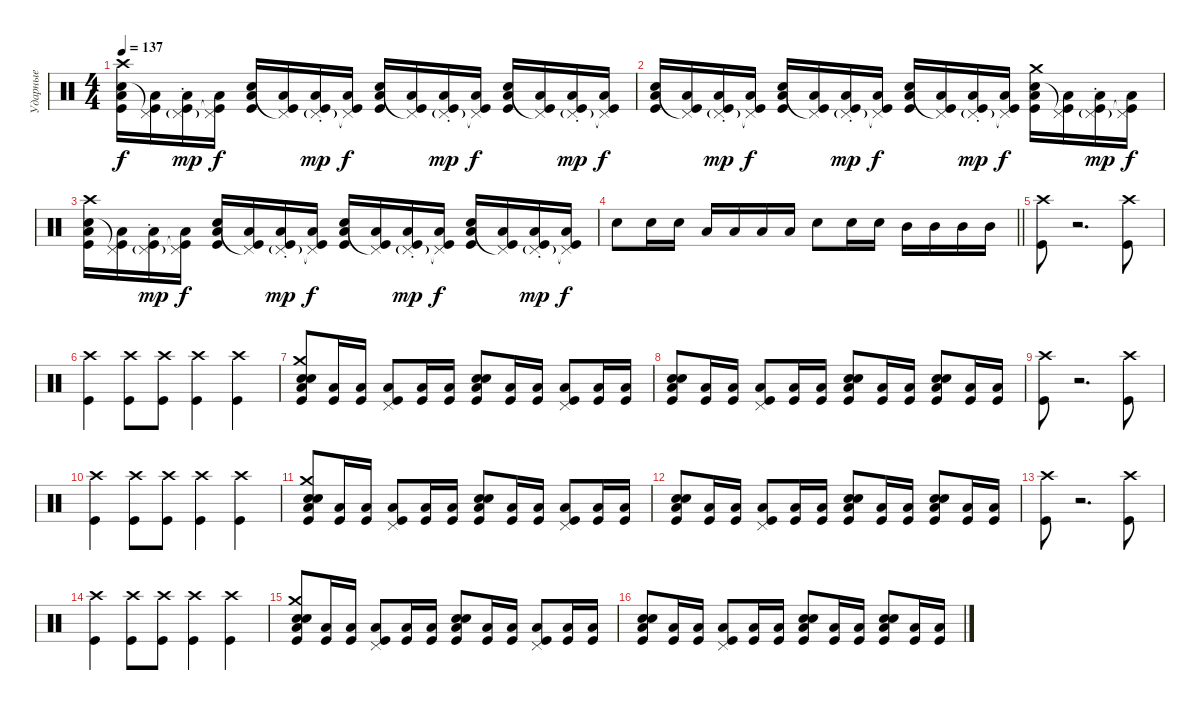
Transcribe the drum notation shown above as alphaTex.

\track ("Ударные" "Ударные") {instrument percussion}
\staff {score}
\articulation defaults
\ts (4 4)
\tempo 137
\clef neutral
\ks c
("Kick (hit)" "Low Tom (hit)" "Electric Snare (hit)" "Crash high (hit)").16{dy f} ("Kick (hit)" "Low Tom (hit)" "Pedal Hi-Hat (hit)"{t}).16 ("Kick (hit)" "Low Tom (hit)" "Pedal Hi-Hat (hit)"{g st}).16{dy mp} ("Kick (hit)" "Low Tom (hit)" "Pedal Hi-Hat (hit)"{t}).16{dy f} ("Kick (hit)" "Low Tom (hit)" "Electric Snare (hit)").16 ("Kick (hit)" "Low Tom (hit)" "Pedal Hi-Hat (hit)"{t}).16 ("Kick (hit)" "Low Tom (hit)" "Pedal Hi-Hat (hit)"{g st}).16{dy mp} ("Kick (hit)" "Low Tom (hit)" "Pedal Hi-Hat (hit)"{t}).16{dy f} ("Kick (hit)" "Low Tom (hit)" "Electric Snare (hit)").16 ("Kick (hit)" "Low Tom (hit)" "Pedal Hi-Hat (hit)"{t}).16 ("Kick (hit)" "Low Tom (hit)" "Pedal Hi-Hat (hit)"{g st}).16{dy mp} ("Kick (hit)" "Low Tom (hit)" "Pedal Hi-Hat (hit)"{t}).16{dy f} ("Kick (hit)" "Low Tom (hit)" "Electric Snare (hit)").16 ("Kick (hit)" "Low Tom (hit)" "Pedal Hi-Hat (hit)"{t}).16 ("Kick (hit)" "Low Tom (hit)" "Pedal Hi-Hat (hit)"{g st}).16{dy mp} ("Kick (hit)" "Low Tom (hit)" "Pedal Hi-Hat (hit)"{t}).16{dy f} |
("Kick (hit)" "Low Tom (hit)" "Electric Snare (hit)").16 ("Kick (hit)" "Low Tom (hit)" "Pedal Hi-Hat (hit)"{t}).16 ("Kick (hit)" "Low Tom (hit)" "Pedal Hi-Hat (hit)"{g st}).16{dy mp} ("Kick (hit)" "Low Tom (hit)" "Pedal Hi-Hat (hit)"{t}).16{dy f} ("Kick (hit)" "Low Tom (hit)" "Electric Snare (hit)").16 ("Kick (hit)" "Low Tom (hit)" "Pedal Hi-Hat (hit)"{t}).16 ("Kick (hit)" "Low Tom (hit)" "Pedal Hi-Hat (hit)"{g st}).16{dy mp} ("Kick (hit)" "Low Tom (hit)" "Pedal Hi-Hat (hit)"{t}).16{dy f} ("Kick (hit)" "Low Tom (hit)" "Electric Snare (hit)").16 ("Kick (hit)" "Low Tom (hit)" "Pedal Hi-Hat (hit)"{t}).16 ("Kick (hit)" "Low Tom (hit)" "Pedal Hi-Hat (hit)"{g st}).16{dy mp} ("Kick (hit)" "Low Tom (hit)" "Pedal Hi-Hat (hit)"{t}).16{dy f} ("Kick (hit)" "Low Tom (hit)" "Electric Snare (hit)" "Crash medium (hit)").16 ("Kick (hit)" "Low Tom (hit)" "Pedal Hi-Hat (hit)"{t}).16 ("Kick (hit)" "Low Tom (hit)" "Pedal Hi-Hat (hit)"{g st}).16{dy mp} ("Kick (hit)" "Low Tom (hit)" "Pedal Hi-Hat (hit)"{t}).16{dy f} |
("Kick (hit)" "Low Tom (hit)" "Electric Snare (hit)" "Crash high (hit)").16 ("Kick (hit)" "Low Tom (hit)" "Pedal Hi-Hat (hit)"{t}).16 ("Kick (hit)" "Low Tom (hit)" "Pedal Hi-Hat (hit)"{g st}).16{dy mp} ("Kick (hit)" "Low Tom (hit)" "Pedal Hi-Hat (hit)"{t}).16{dy f} ("Kick (hit)" "Low Tom (hit)" "Electric Snare (hit)").16 ("Kick (hit)" "Low Tom (hit)" "Pedal Hi-Hat (hit)"{t}).16 ("Kick (hit)" "Low Tom (hit)" "Pedal Hi-Hat (hit)"{g st}).16{dy mp} ("Kick (hit)" "Low Tom (hit)" "Pedal Hi-Hat (hit)"{t}).16{dy f} ("Kick (hit)" "Low Tom (hit)" "Electric Snare (hit)").16 ("Kick (hit)" "Low Tom (hit)" "Pedal Hi-Hat (hit)"{t}).16 ("Kick (hit)" "Low Tom (hit)" "Pedal Hi-Hat (hit)"{g st}).16{dy mp} ("Kick (hit)" "Low Tom (hit)" "Pedal Hi-Hat (hit)"{t}).16{dy f} ("Kick (hit)" "Low Tom (hit)" "Electric Snare (hit)").16 ("Kick (hit)" "Low Tom (hit)" "Pedal Hi-Hat (hit)"{t}).16 ("Kick (hit)" "Low Tom (hit)" "Pedal Hi-Hat (hit)"{g st}).16{dy mp} ("Kick (hit)" "Low Tom (hit)" "Pedal Hi-Hat (hit)"{t}).16{dy f} |
\barLineRight lightlight "Electric Snare (hit)".8 "Electric Snare (hit)".16 "Electric Snare (hit)".16 "Low Tom (hit)".16 "Low Tom (hit)".16 "Low Tom (hit)".16 "Low Tom (hit)".16 "Electric Snare (hit)".8 "Electric Snare (hit)".16 "Electric Snare (hit)".16 "Mid Tom (hit)".16 "Mid Tom (hit)".16 "Mid Tom (hit)".16 "Mid Tom (hit)".16
|
("Crash high (hit)" "Kick (hit)").8 r.2{d} ("Crash high (hit)" "Kick (hit)").8 |
("Crash high (hit)" "Kick (hit)").4 ("Crash high (hit)" "Kick (hit)").8 ("Crash high (hit)" "Kick (hit)").8 ("Crash high (hit)" "Kick (hit)").4 ("Crash high (hit)" "Kick (hit)").4 |
("Crash medium (hit)" "Kick (hit)" "Low Tom (hit)" "Electric Snare (hit)" "Snare (hit) 2").8 ("Kick (hit)" "Low Tom (hit)").16 ("Kick (hit)" "Low Tom (hit)").16 ("Kick (hit)" "Low Tom (hit)" "Pedal Hi-Hat (hit)").8 ("Kick (hit)" "Low Tom (hit)").16 ("Kick (hit)" "Low Tom (hit)").16 ("Kick (hit)" "Low Tom (hit)" "Electric Snare (hit)" "Snare (hit) 2").8 ("Kick (hit)" "Low Tom (hit)").16 ("Kick (hit)" "Low Tom (hit)").16 ("Kick (hit)" "Low Tom (hit)" "Pedal Hi-Hat (hit)").8 ("Kick (hit)" "Low Tom (hit)").16 ("Kick (hit)" "Low Tom (hit)").16 |
("Kick (hit)" "Low Tom (hit)" "Electric Snare (hit)" "Snare (hit) 2").8 ("Kick (hit)" "Low Tom (hit)").16 ("Kick (hit)" "Low Tom (hit)").16 ("Kick (hit)" "Low Tom (hit)" "Pedal Hi-Hat (hit)").8 ("Kick (hit)" "Low Tom (hit)").16 ("Kick (hit)" "Low Tom (hit)").16 ("Kick (hit)" "Low Tom (hit)" "Electric Snare (hit)" "Snare (hit) 2").8 ("Kick (hit)" "Low Tom (hit)").16 ("Kick (hit)" "Low Tom (hit)").16 ("Kick (hit)" "Low Tom (hit)" "Electric Snare (hit)" "Snare (hit) 2").8 ("Kick (hit)" "Low Tom (hit)").16 ("Kick (hit)" "Low Tom (hit)").16 |
("Crash high (hit)" "Kick (hit)").8 r.2{d} ("Crash high (hit)" "Kick (hit)").8 |
("Crash high (hit)" "Kick (hit)").4 ("Crash high (hit)" "Kick (hit)").8 ("Crash high (hit)" "Kick (hit)").8 ("Crash high (hit)" "Kick (hit)").4 ("Crash high (hit)" "Kick (hit)").4 |
("Crash medium (hit)" "Kick (hit)" "Low Tom (hit)" "Electric Snare (hit)" "Snare (hit) 2").8 ("Kick (hit)" "Low Tom (hit)").16 ("Kick (hit)" "Low Tom (hit)").16 ("Kick (hit)" "Low Tom (hit)" "Pedal Hi-Hat (hit)").8 ("Kick (hit)" "Low Tom (hit)").16 ("Kick (hit)" "Low Tom (hit)").16 ("Kick (hit)" "Low Tom (hit)" "Electric Snare (hit)" "Snare (hit) 2").8 ("Kick (hit)" "Low Tom (hit)").16 ("Kick (hit)" "Low Tom (hit)").16 ("Kick (hit)" "Low Tom (hit)" "Pedal Hi-Hat (hit)").8 ("Kick (hit)" "Low Tom (hit)").16 ("Kick (hit)" "Low Tom (hit)").16 |
("Kick (hit)" "Low Tom (hit)" "Electric Snare (hit)" "Snare (hit) 2").8 ("Kick (hit)" "Low Tom (hit)").16 ("Kick (hit)" "Low Tom (hit)").16 ("Kick (hit)" "Low Tom (hit)" "Pedal Hi-Hat (hit)").8 ("Kick (hit)" "Low Tom (hit)").16 ("Kick (hit)" "Low Tom (hit)").16 ("Kick (hit)" "Low Tom (hit)" "Electric Snare (hit)" "Snare (hit) 2").8 ("Kick (hit)" "Low Tom (hit)").16 ("Kick (hit)" "Low Tom (hit)").16 ("Kick (hit)" "Low Tom (hit)" "Electric Snare (hit)" "Snare (hit) 2").8 ("Kick (hit)" "Low Tom (hit)").16 ("Kick (hit)" "Low Tom (hit)").16 |
("Crash high (hit)" "Kick (hit)").8 r.2{d} ("Crash high (hit)" "Kick (hit)").8 |
("Crash high (hit)" "Kick (hit)").4 ("Crash high (hit)" "Kick (hit)").8 ("Crash high (hit)" "Kick (hit)").8 ("Crash high (hit)" "Kick (hit)").4 ("Crash high (hit)" "Kick (hit)").4 |
("Crash medium (hit)" "Kick (hit)" "Low Tom (hit)" "Electric Snare (hit)" "Snare (hit) 2").8 ("Kick (hit)" "Low Tom (hit)").16 ("Kick (hit)" "Low Tom (hit)").16 ("Kick (hit)" "Low Tom (hit)" "Pedal Hi-Hat (hit)").8 ("Kick (hit)" "Low Tom (hit)").16 ("Kick (hit)" "Low Tom (hit)").16 ("Kick (hit)" "Low Tom (hit)" "Electric Snare (hit)" "Snare (hit) 2").8 ("Kick (hit)" "Low Tom (hit)").16 ("Kick (hit)" "Low Tom (hit)").16 ("Kick (hit)" "Low Tom (hit)" "Pedal Hi-Hat (hit)").8 ("Kick (hit)" "Low Tom (hit)").16 ("Kick (hit)" "Low Tom (hit)").16 |
("Kick (hit)" "Low Tom (hit)" "Electric Snare (hit)" "Snare (hit) 2").8 ("Kick (hit)" "Low Tom (hit)").16 ("Kick (hit)" "Low Tom (hit)").16 ("Kick (hit)" "Low Tom (hit)" "Pedal Hi-Hat (hit)").8 ("Kick (hit)" "Low Tom (hit)").16 ("Kick (hit)" "Low Tom (hit)").16 ("Kick (hit)" "Low Tom (hit)" "Electric Snare (hit)" "Snare (hit) 2").8 ("Kick (hit)" "Low Tom (hit)").16 ("Kick (hit)" "Low Tom (hit)").16 ("Kick (hit)" "Low Tom (hit)" "Electric Snare (hit)" "Snare (hit) 2").8 ("Kick (hit)" "Low Tom (hit)").16 ("Kick (hit)" "Low Tom (hit)").16
